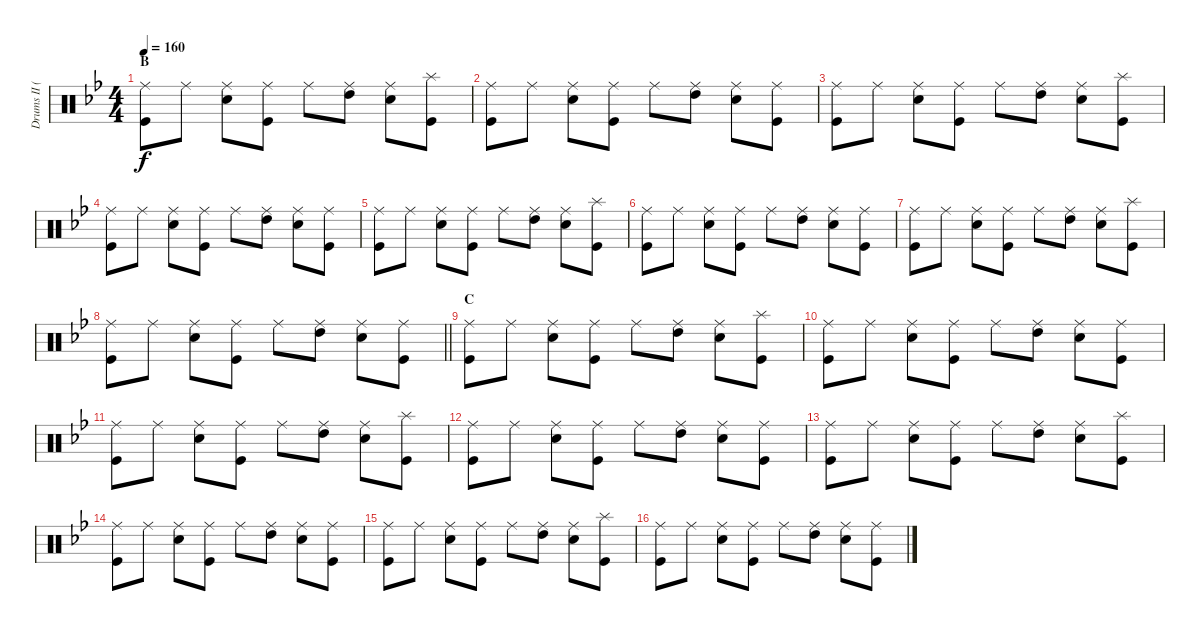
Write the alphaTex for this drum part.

\track ("Drums II (Tainaka Ritsu)" "Drums II (") {instrument percussion}
\staff {score}
\articulation defaults
\ts (4 4)
\section ("" "B")
\tempo 160
\clef neutral
\ks bb
("Ride (middle)" "Kick (hit)").8{dy f} "Ride (middle)".8 ("Ride (middle)" "Snare (hit) 2").8 ("Ride (middle)" "Kick (hit)").8 "Ride (middle)".8 ("Ride (middle)" "High Tom (hit)").8 ("Ride (middle)" "Snare (hit) 2").8 ("Splash (hit)" "Kick (hit)").8 |
("Ride (middle)" "Kick (hit)").8 "Ride (middle)".8 ("Ride (middle)" "Snare (hit) 2").8 ("Ride (middle)" "Kick (hit)").8 "Ride (middle)".8 ("Ride (middle)" "High Tom (hit)").8 ("Ride (middle)" "Snare (hit) 2").8 ("Ride (middle)" "Kick (hit)").8 |
("Ride (middle)" "Kick (hit)").8 "Ride (middle)".8 ("Ride (middle)" "Snare (hit) 2").8 ("Ride (middle)" "Kick (hit)").8 "Ride (middle)".8 ("Ride (middle)" "High Tom (hit)").8 ("Ride (middle)" "Snare (hit) 2").8 ("Splash (hit)" "Kick (hit)").8 |
("Ride (middle)" "Kick (hit)").8 "Ride (middle)".8 ("Ride (middle)" "Snare (hit) 2").8 ("Ride (middle)" "Kick (hit)").8 "Ride (middle)".8 ("Ride (middle)" "High Tom (hit)").8 ("Ride (middle)" "Snare (hit) 2").8 ("Ride (middle)" "Kick (hit)").8 |
("Ride (middle)" "Kick (hit)").8 "Ride (middle)".8 ("Ride (middle)" "Snare (hit) 2").8 ("Ride (middle)" "Kick (hit)").8 "Ride (middle)".8 ("Ride (middle)" "High Tom (hit)").8 ("Ride (middle)" "Snare (hit) 2").8 ("Splash (hit)" "Kick (hit)").8 |
("Ride (middle)" "Kick (hit)").8 "Ride (middle)".8 ("Ride (middle)" "Snare (hit) 2").8 ("Ride (middle)" "Kick (hit)").8 "Ride (middle)".8 ("Ride (middle)" "High Tom (hit)").8 ("Ride (middle)" "Snare (hit) 2").8 ("Ride (middle)" "Kick (hit)").8 |
("Ride (middle)" "Kick (hit)").8 "Ride (middle)".8 ("Ride (middle)" "Snare (hit) 2").8 ("Ride (middle)" "Kick (hit)").8 "Ride (middle)".8 ("Ride (middle)" "High Tom (hit)").8 ("Ride (middle)" "Snare (hit) 2").8 ("Splash (hit)" "Kick (hit)").8 |
\barLineRight lightlight
("Ride (middle)" "Kick (hit)").8 "Ride (middle)".8 ("Ride (middle)" "Snare (hit) 2").8 ("Ride (middle)" "Kick (hit)").8 "Ride (middle)".8 ("Ride (middle)" "High Tom (hit)").8 ("Ride (middle)" "Snare (hit) 2").8 ("Ride (middle)" "Kick (hit)").8 |
\section ("" "C")
("Ride (middle)" "Kick (hit)").8 "Ride (middle)".8 ("Ride (middle)" "Snare (hit) 2").8 ("Ride (middle)" "Kick (hit)").8 "Ride (middle)".8 ("Ride (middle)" "High Tom (hit)").8 ("Ride (middle)" "Snare (hit) 2").8 ("Splash (hit)" "Kick (hit)").8 |
("Ride (middle)" "Kick (hit)").8 "Ride (middle)".8 ("Ride (middle)" "Snare (hit) 2").8 ("Ride (middle)" "Kick (hit)").8 "Ride (middle)".8 ("Ride (middle)" "High Tom (hit)").8 ("Ride (middle)" "Snare (hit) 2").8 ("Ride (middle)" "Kick (hit)").8 |
("Ride (middle)" "Kick (hit)").8 "Ride (middle)".8 ("Ride (middle)" "Snare (hit) 2").8 ("Ride (middle)" "Kick (hit)").8 "Ride (middle)".8 ("Ride (middle)" "High Tom (hit)").8 ("Ride (middle)" "Snare (hit) 2").8 ("Splash (hit)" "Kick (hit)").8 |
("Ride (middle)" "Kick (hit)").8 "Ride (middle)".8 ("Ride (middle)" "Snare (hit) 2").8 ("Ride (middle)" "Kick (hit)").8 "Ride (middle)".8 ("Ride (middle)" "High Tom (hit)").8 ("Ride (middle)" "Snare (hit) 2").8 ("Ride (middle)" "Kick (hit)").8 |
("Ride (middle)" "Kick (hit)").8 "Ride (middle)".8 ("Ride (middle)" "Snare (hit) 2").8 ("Ride (middle)" "Kick (hit)").8 "Ride (middle)".8 ("Ride (middle)" "High Tom (hit)").8 ("Ride (middle)" "Snare (hit) 2").8 ("Splash (hit)" "Kick (hit)").8 |
("Ride (middle)" "Kick (hit)").8 "Ride (middle)".8 ("Ride (middle)" "Snare (hit) 2").8 ("Ride (middle)" "Kick (hit)").8 "Ride (middle)".8 ("Ride (middle)" "High Tom (hit)").8 ("Ride (middle)" "Snare (hit) 2").8 ("Ride (middle)" "Kick (hit)").8 |
("Ride (middle)" "Kick (hit)").8 "Ride (middle)".8 ("Ride (middle)" "Snare (hit) 2").8 ("Ride (middle)" "Kick (hit)").8 "Ride (middle)".8 ("Ride (middle)" "High Tom (hit)").8 ("Ride (middle)" "Snare (hit) 2").8 ("Splash (hit)" "Kick (hit)").8 |
("Ride (middle)" "Kick (hit)").8 "Ride (middle)".8 ("Ride (middle)" "Snare (hit) 2").8 ("Ride (middle)" "Kick (hit)").8 "Ride (middle)".8 ("Ride (middle)" "High Tom (hit)").8 ("Ride (middle)" "Snare (hit) 2").8 ("Ride (middle)" "Kick (hit)").8
